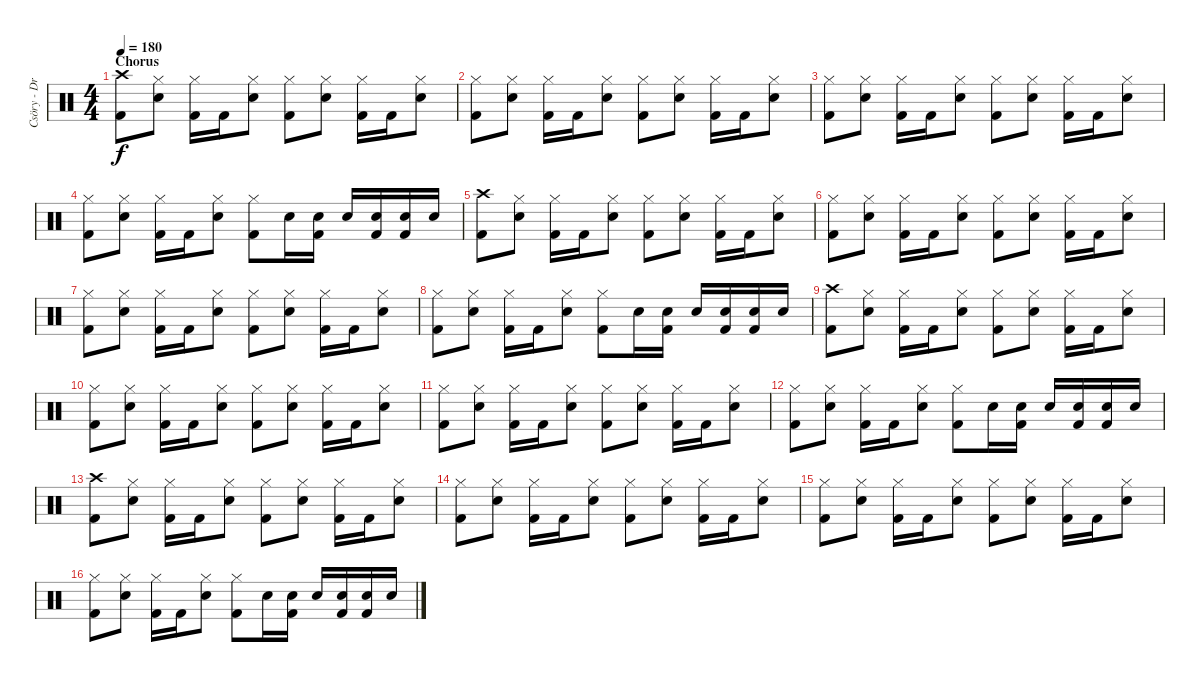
\track ("Csöry - DrumZ" "Csöry - Dr") {instrument percussion}
\staff {score}
\articulation defaults
\ts (4 4)
\section ("" "Chorus")
\tempo 180
\clef neutral
\ks c
("Crash high (hit)" "Kick (hit) 2").8{dy f} ("Hi-Hat (closed)" "Snare (hit) 2").8 ("Hi-Hat (closed)" "Kick (hit) 2").16 "Kick (hit) 2".16 ("Hi-Hat (closed)" "Snare (hit) 2").8 ("Hi-Hat (closed)" "Kick (hit) 2").8 ("Hi-Hat (closed)" "Snare (hit) 2").8 ("Hi-Hat (closed)" "Kick (hit) 2").16 "Kick (hit) 2".16 ("Hi-Hat (closed)" "Snare (hit) 2").8 |
("Hi-Hat (closed)" "Kick (hit) 2").8 ("Hi-Hat (closed)" "Snare (hit) 2").8 ("Hi-Hat (closed)" "Kick (hit) 2").16 "Kick (hit) 2".16 ("Hi-Hat (closed)" "Snare (hit) 2").8 ("Hi-Hat (closed)" "Kick (hit) 2").8 ("Hi-Hat (closed)" "Snare (hit) 2").8 ("Hi-Hat (closed)" "Kick (hit) 2").16 "Kick (hit) 2".16 ("Hi-Hat (closed)" "Snare (hit) 2").8 |
("Hi-Hat (closed)" "Kick (hit) 2").8 ("Hi-Hat (closed)" "Snare (hit) 2").8 ("Hi-Hat (closed)" "Kick (hit) 2").16 "Kick (hit) 2".16 ("Hi-Hat (closed)" "Snare (hit) 2").8 ("Hi-Hat (closed)" "Kick (hit) 2").8 ("Hi-Hat (closed)" "Snare (hit) 2").8 ("Hi-Hat (closed)" "Kick (hit) 2").16 "Kick (hit) 2".16 ("Hi-Hat (closed)" "Snare (hit) 2").8 |
("Hi-Hat (closed)" "Kick (hit) 2").8 ("Hi-Hat (closed)" "Snare (hit) 2").8 ("Hi-Hat (closed)" "Kick (hit) 2").16 "Kick (hit) 2".16 ("Hi-Hat (closed)" "Snare (hit) 2").8 ("Hi-Hat (closed)" "Kick (hit) 2").8 "Snare (hit) 2".16 ("Snare (hit) 2" "Kick (hit) 2").16 "Snare (hit) 2".16 ("Snare (hit) 2" "Kick (hit) 2").16 ("Snare (hit) 2" "Kick (hit) 2").16 "Snare (hit) 2".16 |
("Crash high (hit)" "Kick (hit) 2").8 ("Hi-Hat (closed)" "Snare (hit) 2").8 ("Hi-Hat (closed)" "Kick (hit) 2").16 "Kick (hit) 2".16 ("Hi-Hat (closed)" "Snare (hit) 2").8 ("Hi-Hat (closed)" "Kick (hit) 2").8 ("Hi-Hat (closed)" "Snare (hit) 2").8 ("Hi-Hat (closed)" "Kick (hit) 2").16 "Kick (hit) 2".16 ("Hi-Hat (closed)" "Snare (hit) 2").8 |
("Hi-Hat (closed)" "Kick (hit) 2").8 ("Hi-Hat (closed)" "Snare (hit) 2").8 ("Hi-Hat (closed)" "Kick (hit) 2").16 "Kick (hit) 2".16 ("Hi-Hat (closed)" "Snare (hit) 2").8 ("Hi-Hat (closed)" "Kick (hit) 2").8 ("Hi-Hat (closed)" "Snare (hit) 2").8 ("Hi-Hat (closed)" "Kick (hit) 2").16 "Kick (hit) 2".16 ("Hi-Hat (closed)" "Snare (hit) 2").8 |
("Hi-Hat (closed)" "Kick (hit) 2").8 ("Hi-Hat (closed)" "Snare (hit) 2").8 ("Hi-Hat (closed)" "Kick (hit) 2").16 "Kick (hit) 2".16 ("Hi-Hat (closed)" "Snare (hit) 2").8 ("Hi-Hat (closed)" "Kick (hit) 2").8 ("Hi-Hat (closed)" "Snare (hit) 2").8 ("Hi-Hat (closed)" "Kick (hit) 2").16 "Kick (hit) 2".16 ("Hi-Hat (closed)" "Snare (hit) 2").8 |
("Hi-Hat (closed)" "Kick (hit) 2").8 ("Hi-Hat (closed)" "Snare (hit) 2").8 ("Hi-Hat (closed)" "Kick (hit) 2").16 "Kick (hit) 2".16 ("Hi-Hat (closed)" "Snare (hit) 2").8 ("Hi-Hat (closed)" "Kick (hit) 2").8 "Snare (hit) 2".16 ("Snare (hit) 2" "Kick (hit) 2").16 "Snare (hit) 2".16 ("Snare (hit) 2" "Kick (hit) 2").16 ("Snare (hit) 2" "Kick (hit) 2").16 "Snare (hit) 2".16 |
("Crash high (hit)" "Kick (hit) 2").8 ("Hi-Hat (closed)" "Snare (hit) 2").8 ("Hi-Hat (closed)" "Kick (hit) 2").16 "Kick (hit) 2".16 ("Hi-Hat (closed)" "Snare (hit) 2").8 ("Hi-Hat (closed)" "Kick (hit) 2").8 ("Hi-Hat (closed)" "Snare (hit) 2").8 ("Hi-Hat (closed)" "Kick (hit) 2").16 "Kick (hit) 2".16 ("Hi-Hat (closed)" "Snare (hit) 2").8 |
("Hi-Hat (closed)" "Kick (hit) 2").8 ("Hi-Hat (closed)" "Snare (hit) 2").8 ("Hi-Hat (closed)" "Kick (hit) 2").16 "Kick (hit) 2".16 ("Hi-Hat (closed)" "Snare (hit) 2").8 ("Hi-Hat (closed)" "Kick (hit) 2").8 ("Hi-Hat (closed)" "Snare (hit) 2").8 ("Hi-Hat (closed)" "Kick (hit) 2").16 "Kick (hit) 2".16 ("Hi-Hat (closed)" "Snare (hit) 2").8 |
("Hi-Hat (closed)" "Kick (hit) 2").8 ("Hi-Hat (closed)" "Snare (hit) 2").8 ("Hi-Hat (closed)" "Kick (hit) 2").16 "Kick (hit) 2".16 ("Hi-Hat (closed)" "Snare (hit) 2").8 ("Hi-Hat (closed)" "Kick (hit) 2").8 ("Hi-Hat (closed)" "Snare (hit) 2").8 ("Hi-Hat (closed)" "Kick (hit) 2").16 "Kick (hit) 2".16 ("Hi-Hat (closed)" "Snare (hit) 2").8 |
("Hi-Hat (closed)" "Kick (hit) 2").8 ("Hi-Hat (closed)" "Snare (hit) 2").8 ("Hi-Hat (closed)" "Kick (hit) 2").16 "Kick (hit) 2".16 ("Hi-Hat (closed)" "Snare (hit) 2").8 ("Hi-Hat (closed)" "Kick (hit) 2").8 "Snare (hit) 2".16 ("Snare (hit) 2" "Kick (hit) 2").16 "Snare (hit) 2".16 ("Snare (hit) 2" "Kick (hit) 2").16 ("Snare (hit) 2" "Kick (hit) 2").16 "Snare (hit) 2".16 |
("Crash high (hit)" "Kick (hit) 2").8 ("Hi-Hat (closed)" "Snare (hit) 2").8 ("Hi-Hat (closed)" "Kick (hit) 2").16 "Kick (hit) 2".16 ("Hi-Hat (closed)" "Snare (hit) 2").8 ("Hi-Hat (closed)" "Kick (hit) 2").8 ("Hi-Hat (closed)" "Snare (hit) 2").8 ("Hi-Hat (closed)" "Kick (hit) 2").16 "Kick (hit) 2".16 ("Hi-Hat (closed)" "Snare (hit) 2").8 |
("Hi-Hat (closed)" "Kick (hit) 2").8 ("Hi-Hat (closed)" "Snare (hit) 2").8 ("Hi-Hat (closed)" "Kick (hit) 2").16 "Kick (hit) 2".16 ("Hi-Hat (closed)" "Snare (hit) 2").8 ("Hi-Hat (closed)" "Kick (hit) 2").8 ("Hi-Hat (closed)" "Snare (hit) 2").8 ("Hi-Hat (closed)" "Kick (hit) 2").16 "Kick (hit) 2".16 ("Hi-Hat (closed)" "Snare (hit) 2").8 |
("Hi-Hat (closed)" "Kick (hit) 2").8 ("Hi-Hat (closed)" "Snare (hit) 2").8 ("Hi-Hat (closed)" "Kick (hit) 2").16 "Kick (hit) 2".16 ("Hi-Hat (closed)" "Snare (hit) 2").8 ("Hi-Hat (closed)" "Kick (hit) 2").8 ("Hi-Hat (closed)" "Snare (hit) 2").8 ("Hi-Hat (closed)" "Kick (hit) 2").16 "Kick (hit) 2".16 ("Hi-Hat (closed)" "Snare (hit) 2").8 |
("Hi-Hat (closed)" "Kick (hit) 2").8 ("Hi-Hat (closed)" "Snare (hit) 2").8 ("Hi-Hat (closed)" "Kick (hit) 2").16 "Kick (hit) 2".16 ("Hi-Hat (closed)" "Snare (hit) 2").8 ("Hi-Hat (closed)" "Kick (hit) 2").8 "Snare (hit) 2".16 ("Snare (hit) 2" "Kick (hit) 2").16 "Snare (hit) 2".16 ("Snare (hit) 2" "Kick (hit) 2").16 ("Snare (hit) 2" "Kick (hit) 2").16 "Snare (hit) 2".16
